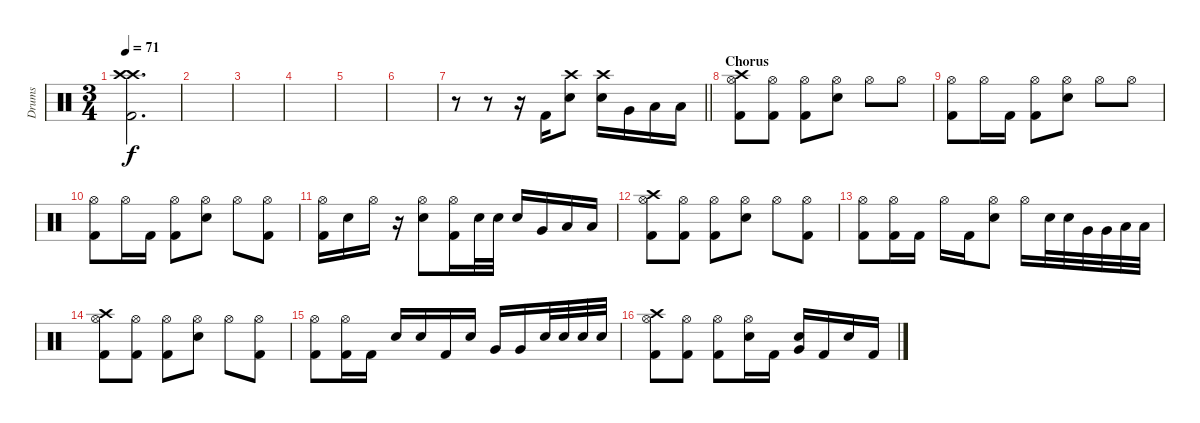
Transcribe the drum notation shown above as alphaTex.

\track ("Drums" "Drums") {instrument percussion}
\staff {score}
\articulation defaults
\ts (3 4)
\tempo 71
\clef neutral
\ks c
("Crash high (hit)" "Crash high (hit)" "Kick (hit) 2").2{d dy f} |
|
|
|
|
|
\barLineRight lightlight
r.8 r.8 r.16 "Kick (hit) 2".16 ("Crash high (hit)" "Snare (hit) 2").8 ("Crash high (hit)" "Snare (hit) 2").16 "Very Low Tom (hit)".16 "Low Floor Tom (hit)".16 "Low Floor Tom (hit)".16 |
\section ("" "Chorus")
("Crash high (hit)" "Hi-Hat (open)" "Kick (hit) 2").8 ("Hi-Hat (open)" "Kick (hit) 2").8 ("Hi-Hat (open)" "Kick (hit) 2").8 ("Hi-Hat (open)" "Snare (hit) 2").8 "Hi-Hat (open)".8 "Hi-Hat (open)".8 |
("Hi-Hat (open)" "Kick (hit) 2").8 "Hi-Hat (open)".16 "Kick (hit) 2".16 ("Hi-Hat (open)" "Kick (hit) 2").8 ("Hi-Hat (open)" "Snare (hit) 2").8 "Hi-Hat (open)".8 "Hi-Hat (open)".8 |
("Hi-Hat (open)" "Kick (hit) 2").8 "Hi-Hat (open)".16 "Kick (hit) 2".16 ("Hi-Hat (open)" "Kick (hit) 2").8 ("Hi-Hat (open)" "Snare (hit) 2").8 "Hi-Hat (open)".8 ("Hi-Hat (open)" "Kick (hit) 2").8 |
("Hi-Hat (open)" "Kick (hit) 2").16 "Snare (hit) 2".16 "Hi-Hat (open)".16 r.16 ("Hi-Hat (open)" "Snare (hit) 2").8 ("Hi-Hat (open)" "Kick (hit) 2").16 "Snare (hit) 2".32 "Snare (hit) 2".32 "Snare (hit) 2".16 "Very Low Tom (hit)".16 "Low Floor Tom (hit)".16 "Low Floor Tom (hit)".16 |
("Crash high (hit)" "Hi-Hat (open)" "Kick (hit) 2").8 ("Hi-Hat (open)" "Kick (hit) 2").8 ("Hi-Hat (open)" "Kick (hit) 2").8 ("Hi-Hat (open)" "Snare (hit) 2").8 "Hi-Hat (open)".8 ("Hi-Hat (open)" "Kick (hit) 2").8 |
("Hi-Hat (open)" "Kick (hit) 2").8 ("Hi-Hat (open)" "Kick (hit) 2").16 "Kick (hit) 2".16 "Hi-Hat (open)".16 "Kick (hit) 2".16 ("Hi-Hat (open)" "Snare (hit) 2").8 "Hi-Hat (open)".16 "Snare (hit) 2".32 "Snare (hit) 2".32 "Very Low Tom (hit)".32 "Very Low Tom (hit)".32 "Low Floor Tom (hit)".32 "Low Floor Tom (hit)".32 |
("Crash high (hit)" "Hi-Hat (open)" "Kick (hit) 2").8 ("Hi-Hat (open)" "Kick (hit) 2").8 ("Hi-Hat (open)" "Kick (hit) 2").8 ("Hi-Hat (open)" "Snare (hit) 2").8 "Hi-Hat (open)".8 ("Hi-Hat (open)" "Kick (hit) 2").8 |
("Hi-Hat (open)" "Kick (hit) 2").8 ("Hi-Hat (open)" "Kick (hit) 2").16 "Kick (hit) 2".16 "Snare (hit) 2".16 "Snare (hit) 2".16 "Kick (hit) 2".16 "Snare (hit) 2".16 "Very Low Tom (hit)".16 "Very Low Tom (hit)".16 "Snare (hit) 2".32 "Snare (hit) 2".32 "Snare (hit) 2".32 "Snare (hit) 2".32 |
("Crash high (hit)" "Hi-Hat (open)" "Kick (hit) 2").8 ("Hi-Hat (open)" "Kick (hit) 2").8 ("Hi-Hat (open)" "Kick (hit) 2").8 ("Hi-Hat (open)" "Snare (hit) 2").16 "Kick (hit) 2".16 ("Snare (hit) 2" "Very Low Tom (hit)").16 "Kick (hit) 2".16 "Snare (hit) 2".16 "Kick (hit) 2".16
